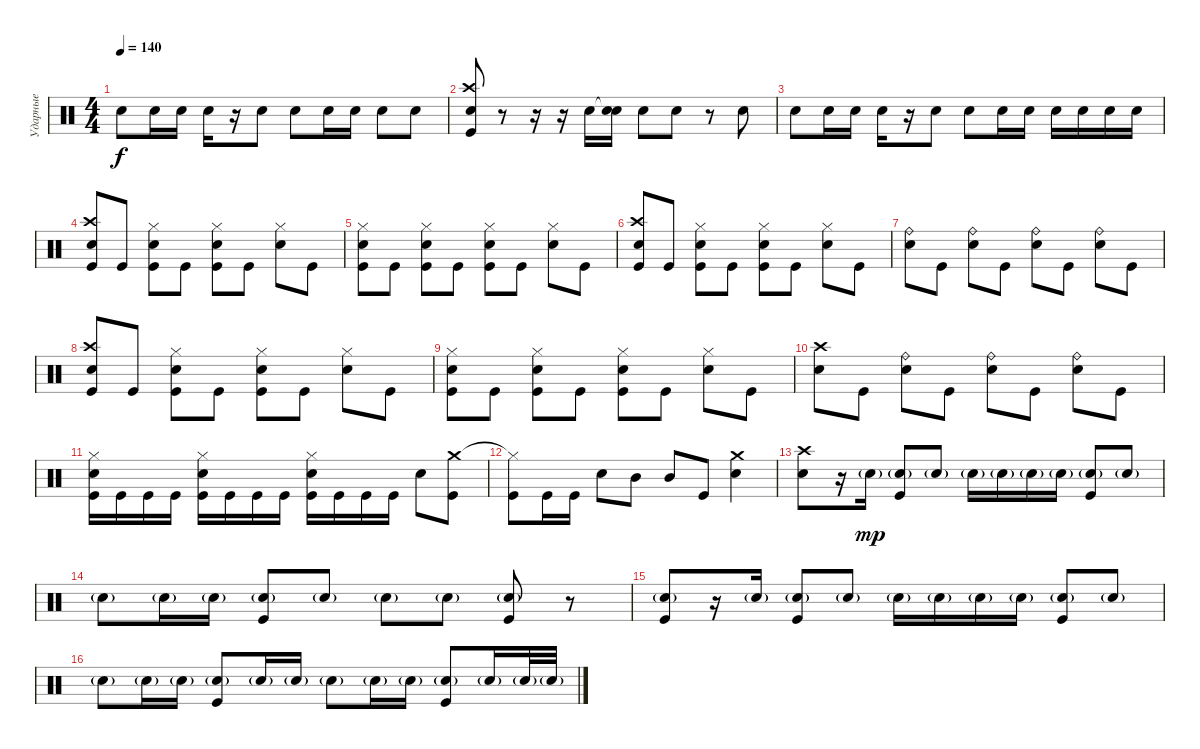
\track ("Ударные" "Ударные") {instrument percussion}
\staff {score}
\articulation defaults
\ts (4 4)
\tempo 140
\clef neutral
\ks c "Electric Snare (hit)".8{dy f} "Electric Snare (hit)".16 "Electric Snare (hit)".16 "Electric Snare (hit)".16
r.16 "Electric Snare (hit)".8 "Electric Snare (hit)".8 "Electric Snare (hit)".16 "Electric Snare (hit)".16 "Electric Snare (hit)".8 "Electric Snare (hit)".8 |
("Crash high (hit)" "Electric Snare (hit)" "Kick (hit)").8 r.8 r.16 r.16 "Electric Snare (hit)".16 ("Snare (hit)"{t} "Electric Snare (hit)").16 "Electric Snare (hit)".8 "Electric Snare (hit)".8 r.8 "Electric Snare (hit)".8 |
"Electric Snare (hit)".8 "Electric Snare (hit)".16 "Electric Snare (hit)".16 "Electric Snare (hit)".16 r.16 "Electric Snare (hit)".8 "Electric Snare (hit)".8 "Electric Snare (hit)".16 "Electric Snare (hit)".16 "Electric Snare (hit)".16 "Electric Snare (hit)".16 "Electric Snare (hit)".16 "Electric Snare (hit)".16 |
("Crash high (hit)" "Electric Snare (hit)" "Kick (hit)").8 "Kick (hit)".8 ("Hi-Hat (closed)" "Electric Snare (hit)" "Kick (hit)").8 "Kick (hit)".8 ("Hi-Hat (closed)" "Electric Snare (hit)" "Kick (hit)").8 "Kick (hit)".8 ("Hi-Hat (closed)" "Electric Snare (hit)").8 "Kick (hit)".8 |
("Hi-Hat (closed)" "Electric Snare (hit)" "Kick (hit)").8 "Kick (hit)".8 ("Hi-Hat (closed)" "Electric Snare (hit)" "Kick (hit)").8 "Kick (hit)".8 ("Hi-Hat (closed)" "Electric Snare (hit)" "Kick (hit)").8 "Kick (hit)".8 ("Hi-Hat (closed)" "Electric Snare (hit)").8 "Kick (hit)".8 |
("Crash high (hit)" "Electric Snare (hit)" "Kick (hit)").8 "Kick (hit)".8 ("Hi-Hat (closed)" "Electric Snare (hit)" "Kick (hit)").8 "Kick (hit)".8 ("Hi-Hat (closed)" "Electric Snare (hit)" "Kick (hit)").8 "Kick (hit)".8 ("Hi-Hat (closed)" "Electric Snare (hit)").8 "Kick (hit)".8 |
("Ride (bell)" "Electric Snare (hit)").8 "Kick (hit)".8 ("Ride (bell)" "Electric Snare (hit)").8 "Kick (hit)".8 ("Ride (bell)" "Electric Snare (hit)").8 "Kick (hit)".8 ("Ride (bell)" "Electric Snare (hit)").8 "Kick (hit)".8 |
("Crash high (hit)" "Electric Snare (hit)" "Kick (hit)").8 "Kick (hit)".8 ("Hi-Hat (closed)" "Electric Snare (hit)" "Kick (hit)").8 "Kick (hit)".8 ("Hi-Hat (closed)" "Electric Snare (hit)" "Kick (hit)").8 "Kick (hit)".8 ("Hi-Hat (closed)" "Electric Snare (hit)").8 "Kick (hit)".8 |
("Hi-Hat (closed)" "Electric Snare (hit)" "Kick (hit)").8 "Kick (hit)".8 ("Hi-Hat (closed)" "Electric Snare (hit)" "Kick (hit)").8 "Kick (hit)".8 ("Hi-Hat (closed)" "Electric Snare (hit)" "Kick (hit)").8 "Kick (hit)".8 ("Hi-Hat (closed)" "Electric Snare (hit)").8 "Kick (hit)".8 |
("Crash high (hit)" "Electric Snare (hit)").8 "Kick (hit)".8 ("Ride (bell)" "Electric Snare (hit)").8 "Kick (hit)".8 ("Ride (bell)" "Electric Snare (hit)").8 "Kick (hit)".8 ("Ride (bell)" "Electric Snare (hit)").8 "Kick (hit)".8 |
("Hi-Hat (closed)" "Electric Snare (hit)" "Kick (hit)").16 "Kick (hit)".16 "Kick (hit)".16 "Kick (hit)".16 ("Hi-Hat (closed)" "Electric Snare (hit)" "Kick (hit)").16 "Kick (hit)".16 "Kick (hit)".16 "Kick (hit)".16 ("Hi-Hat (closed)" "Electric Snare (hit)" "Kick (hit)").16 "Kick (hit)".16 "Kick (hit)".16 "Kick (hit)".16 "Electric Snare (hit)".8 ("Crash medium (hit)" "Kick (hit)").8 |
("Hi-Hat (closed)"{t} "Kick (hit)").8 "Kick (hit)".16 "Kick (hit)".16 "Electric Snare (hit)".8 "Mid Tom (hit)".8 "Mid Tom (hit)".8 "Kick (hit)".8 ("Crash medium (hit)" "Electric Snare (hit)").4 |
("Crash high (hit)" "Electric Snare (hit)").8 r.16 "Electric Snare (hit)"{g}.16{dy mp} ("Electric Snare (hit)"{g} "Kick (hit)").8 "Electric Snare (hit)"{g}.8 "Electric Snare (hit)"{g}.16 "Electric Snare (hit)"{g}.16 "Electric Snare (hit)"{g}.16 "Electric Snare (hit)"{g}.16 ("Electric Snare (hit)"{g} "Kick (hit)").8 "Electric Snare (hit)"{g}.8 |
"Electric Snare (hit)"{g}.8 "Electric Snare (hit)"{g}.16 "Electric Snare (hit)"{g}.16 ("Electric Snare (hit)"{g} "Kick (hit)").8 "Electric Snare (hit)"{g}.8 "Electric Snare (hit)"{g}.8 "Electric Snare (hit)"{g}.8 ("Electric Snare (hit)"{g} "Kick (hit)").8 r.8 |
("Electric Snare (hit)"{g} "Kick (hit)").8 r.16 "Electric Snare (hit)"{g}.16 ("Electric Snare (hit)"{g} "Kick (hit)").8 "Electric Snare (hit)"{g}.8 "Electric Snare (hit)"{g}.16 "Electric Snare (hit)"{g}.16 "Electric Snare (hit)"{g}.16 "Electric Snare (hit)"{g}.16 ("Electric Snare (hit)"{g} "Kick (hit)").8 "Electric Snare (hit)"{g}.8 |
"Electric Snare (hit)"{g}.8 "Electric Snare (hit)"{g}.16 "Electric Snare (hit)"{g}.16 ("Electric Snare (hit)"{g} "Kick (hit)").8 "Electric Snare (hit)"{g}.16 "Electric Snare (hit)"{g}.16 "Electric Snare (hit)"{g}.8 "Electric Snare (hit)"{g}.16 "Electric Snare (hit)"{g}.16 ("Electric Snare (hit)"{g} "Kick (hit)").8 "Electric Snare (hit)"{g}.16 "Electric Snare (hit)"{g}.32 "Electric Snare (hit)"{g}.32
